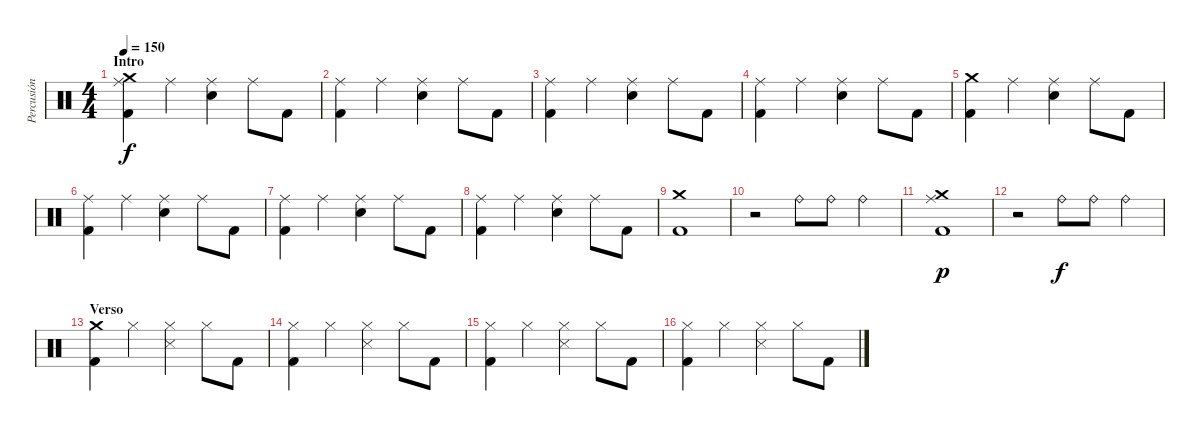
\track ("Percusión" "Percusión") {instrument percussion}
\staff {score}
\articulation defaults
\ts (4 4)
\section ("" "Intro")
\tempo 150
\clef neutral
\ks c
("Ride (middle)" "Crash medium (hit)" "Kick (hit) 2").4{dy f} "Ride (middle)".4 ("Ride (middle)" "Snare (hit) 2").4 "Ride (middle)".8 "Kick (hit) 2".8 |
("Ride (middle)" "Kick (hit) 2").4 "Ride (middle)".4 ("Ride (middle)" "Snare (hit) 2").4 "Ride (middle)".8 "Kick (hit) 2".8 |
("Ride (middle)" "Kick (hit) 2").4 "Ride (middle)".4 ("Ride (middle)" "Snare (hit) 2").4 "Ride (middle)".8 "Kick (hit) 2".8 |
("Ride (middle)" "Kick (hit) 2").4 "Ride (middle)".4 ("Ride (middle)" "Snare (hit) 2").4 "Ride (middle)".8 "Kick (hit) 2".8 |
("Crash medium (hit)" "Kick (hit) 2").4 "Ride (middle)".4 ("Ride (middle)" "Snare (hit) 2").4 "Ride (middle)".8 "Kick (hit) 2".8 |
("Ride (middle)" "Kick (hit) 2").4 "Ride (middle)".4 ("Ride (middle)" "Snare (hit) 2").4 "Ride (middle)".8 "Kick (hit) 2".8 |
("Ride (middle)" "Kick (hit) 2").4 "Ride (middle)".4 ("Ride (middle)" "Snare (hit) 2").4 "Ride (middle)".8 "Kick (hit) 2".8 |
("Ride (middle)" "Kick (hit) 2").4 "Ride (middle)".4 ("Ride (middle)" "Snare (hit) 2").4 "Ride (middle)".8 "Kick (hit) 2".8 |
("Kick (hit) 2" "Crash medium (hit)").1 |
r.2 "Ride (bell)".8 "Ride (bell)".8 "Ride (bell)".4 |
("Ride (middle)" "Kick (hit) 2" "Crash medium (hit)").1{dy p} |
r.2 "Ride (bell)".8{dy f} "Ride (bell)".8 "Ride (bell)".4 |
\section ("" "Verso")
("Crash medium (hit)" "Kick (hit) 2").4 "Hi-Hat (closed)".4 ("Hi-Hat (closed)" "Metronome (hit)").4 "Hi-Hat (closed)".8 "Kick (hit) 2".8 |
("Hi-Hat (closed)" "Kick (hit) 2").4 "Hi-Hat (closed)".4 ("Hi-Hat (closed)" "Metronome (hit)").4 "Hi-Hat (closed)".8 "Kick (hit) 2".8 |
("Hi-Hat (closed)" "Kick (hit) 2").4 "Hi-Hat (closed)".4 ("Hi-Hat (closed)" "Metronome (hit)").4 "Hi-Hat (closed)".8 "Kick (hit) 2".8 |
("Hi-Hat (closed)" "Kick (hit) 2").4 "Hi-Hat (closed)".4 ("Hi-Hat (closed)" "Metronome (hit)").4 "Hi-Hat (closed)".8 "Kick (hit) 2".8
